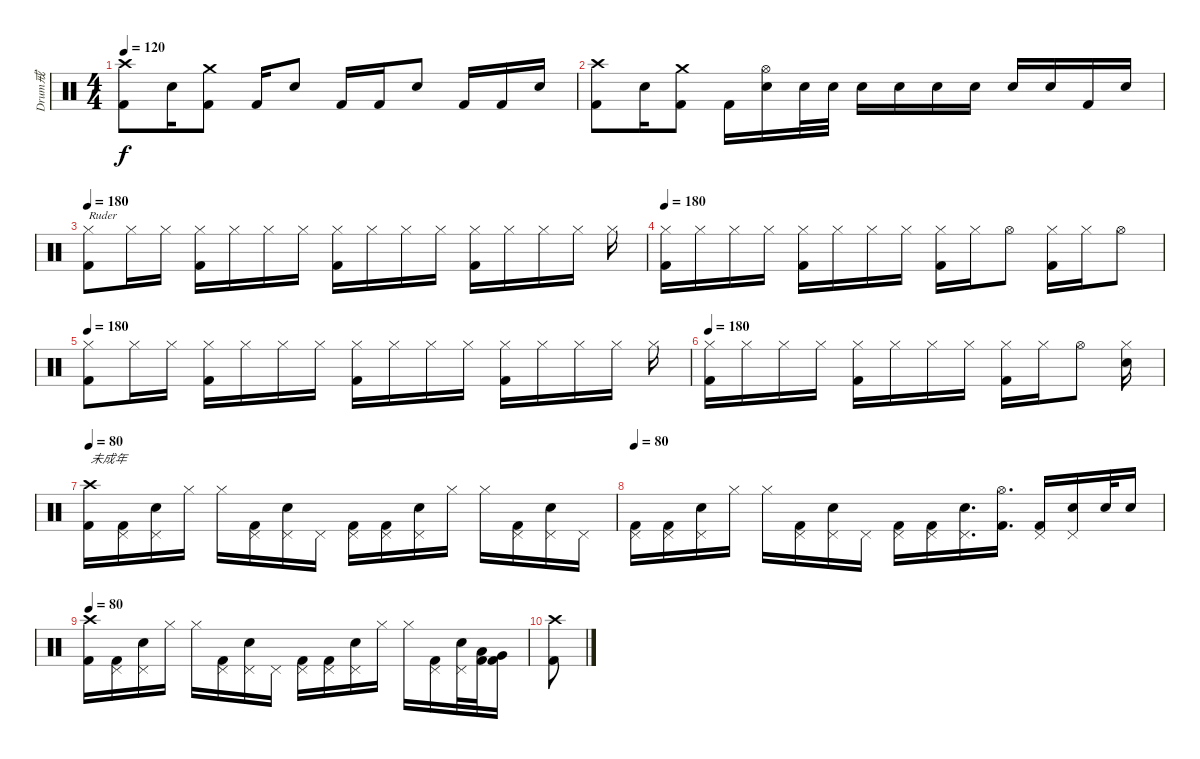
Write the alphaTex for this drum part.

\track ("Drum戒" "Drum戒") {instrument percussion}
\staff {score}
\articulation defaults
\ts (4 4)
\tempo 120
\clef neutral
\ks c
("Crash high (hit)" "Kick (hit) 2").8{dy f} "Snare (hit) 2".16 ("Crash medium (hit)" "Kick (hit) 2").8 "Kick (hit) 2".16 "Snare (hit) 2".8 "Kick (hit) 2".16 "Kick (hit) 2".16 "Snare (hit) 2".8 "Kick (hit) 2".16 "Kick (hit) 2".16 "Snare (hit) 2".16 |
("Crash high (hit)" "Kick (hit) 2").8 "Snare (hit) 2".16 ("Crash medium (hit)" "Kick (hit) 2").8 "Kick (hit) 2".16 ("Hi-Hat (open)" "Snare (hit) 2").16 "Snare (hit) 2".32 "Snare (hit) 2".32 "Snare (hit) 2".16 "Snare (hit) 2".16 "Snare (hit) 2".16 "Snare (hit) 2".16 "Snare (hit) 2".16 "Snare (hit) 2".16 "Kick (hit) 2".16 "Snare (hit) 2".16 |
\tempo 180
("Hi-Hat (closed)" "Kick (hit) 2").8{txt "Ruder"} "Hi-Hat (closed)".16 "Hi-Hat (closed)".16 ("Hi-Hat (closed)" "Kick (hit) 2").16 "Hi-Hat (closed)".16 "Hi-Hat (closed)".16 "Hi-Hat (closed)".16 ("Hi-Hat (closed)" "Kick (hit) 2").16 "Hi-Hat (closed)".16 "Hi-Hat (closed)".16 "Hi-Hat (closed)".16 ("Hi-Hat (closed)" "Kick (hit) 2").16 "Hi-Hat (closed)".16 "Hi-Hat (closed)".16 "Hi-Hat (closed)".16 "Hi-Hat (closed)".16 |
\tempo 180
("Hi-Hat (closed)" "Kick (hit) 2").16 "Hi-Hat (closed)".16 "Hi-Hat (closed)".16 "Hi-Hat (closed)".16 ("Hi-Hat (closed)" "Kick (hit) 2").16 "Hi-Hat (closed)".16 "Hi-Hat (closed)".16 "Hi-Hat (closed)".16 ("Hi-Hat (closed)" "Kick (hit) 2").16 "Hi-Hat (closed)".16 "Hi-Hat (open)".8 ("Hi-Hat (closed)" "Kick (hit) 2").16 "Hi-Hat (closed)".16 "Hi-Hat (open)".8 |
\tempo 180
("Hi-Hat (closed)" "Kick (hit) 2").8 "Hi-Hat (closed)".16 "Hi-Hat (closed)".16 ("Hi-Hat (closed)" "Kick (hit) 2").16 "Hi-Hat (closed)".16 "Hi-Hat (closed)".16 "Hi-Hat (closed)".16 ("Hi-Hat (closed)" "Kick (hit) 2").16 "Hi-Hat (closed)".16 "Hi-Hat (closed)".16 "Hi-Hat (closed)".16 ("Hi-Hat (closed)" "Kick (hit) 2").16 "Hi-Hat (closed)".16 "Hi-Hat (closed)".16 "Hi-Hat (closed)".16 "Hi-Hat (closed)".16 |
\tempo 180
("Hi-Hat (closed)" "Kick (hit) 2").16 "Hi-Hat (closed)".16 "Hi-Hat (closed)".16 "Hi-Hat (closed)".16 ("Hi-Hat (closed)" "Kick (hit) 2").16 "Hi-Hat (closed)".16 "Hi-Hat (closed)".16 "Hi-Hat (closed)".16 ("Hi-Hat (closed)" "Kick (hit) 2").16 "Hi-Hat (closed)".16 "Hi-Hat (open)".8 ("Hi-Hat (closed)" "Snare (hit) 2").16 |
\tempo 80
("Crash high (hit)" "Kick (hit) 2").16{txt "未成年"} ("Pedal Hi-Hat (hit)" "Kick (hit) 2").16 ("Pedal Hi-Hat (hit)" "Snare (hit) 2").16 "Hi-Hat (closed)".16 "Hi-Hat (closed)".16 ("Pedal Hi-Hat (hit)" "Kick (hit) 2").16 ("Pedal Hi-Hat (hit)" "Snare (hit) 2").16 "Pedal Hi-Hat (hit)".16 ("Pedal Hi-Hat (hit)" "Kick (hit) 2").16 ("Pedal Hi-Hat (hit)" "Kick (hit) 2").16 ("Pedal Hi-Hat (hit)" "Snare (hit) 2").16 "Hi-Hat (closed)".16 "Hi-Hat (closed)".16 ("Pedal Hi-Hat (hit)" "Kick (hit) 2").16 ("Pedal Hi-Hat (hit)" "Snare (hit) 2").16 "Pedal Hi-Hat (hit)".16 |
\tempo 80
("Pedal Hi-Hat (hit)" "Kick (hit) 2").16 ("Pedal Hi-Hat (hit)" "Kick (hit) 2").16 ("Pedal Hi-Hat (hit)" "Snare (hit) 2").16 "Hi-Hat (closed)".16 "Hi-Hat (closed)".16 ("Pedal Hi-Hat (hit)" "Kick (hit) 2").16 ("Pedal Hi-Hat (hit)" "Snare (hit) 2").16 "Pedal Hi-Hat (hit)".16 ("Pedal Hi-Hat (hit)" "Kick (hit) 2").16 ("Pedal Hi-Hat (hit)" "Kick (hit) 2").16 ("Pedal Hi-Hat (hit)" "Snare (hit) 2").16{d} ("Hi-Hat (open)" "Kick (hit) 2").16{d} ("Pedal Hi-Hat (hit)" "Kick (hit) 2").16 ("Pedal Hi-Hat (hit)" "Snare (hit) 2").16 "Snare (hit) 2".32 "Snare (hit) 2".16 |
\tempo 80
("Crash high (hit)" "Kick (hit) 2").16 ("Pedal Hi-Hat (hit)" "Kick (hit) 2").16 ("Pedal Hi-Hat (hit)" "Snare (hit) 2").16 "Hi-Hat (closed)".16 "Hi-Hat (closed)".16 ("Pedal Hi-Hat (hit)" "Kick (hit) 2").16 ("Pedal Hi-Hat (hit)" "Snare (hit) 2").16 "Pedal Hi-Hat (hit)".16 ("Pedal Hi-Hat (hit)" "Kick (hit) 2").16 ("Pedal Hi-Hat (hit)" "Kick (hit) 2").16 ("Pedal Hi-Hat (hit)" "Snare (hit) 2").16 "Hi-Hat (closed)".16 "Hi-Hat (closed)".16 ("Pedal Hi-Hat (hit)" "Kick (hit) 2").16 ("Pedal Hi-Hat (hit)" "Snare (hit) 2").32 ("Low Tom (hit)" "Kick (hit) 2").32 ("Very Low Tom (hit)" "Kick (hit) 2").16 |
("Crash high (hit)" "Kick (hit) 2").8
